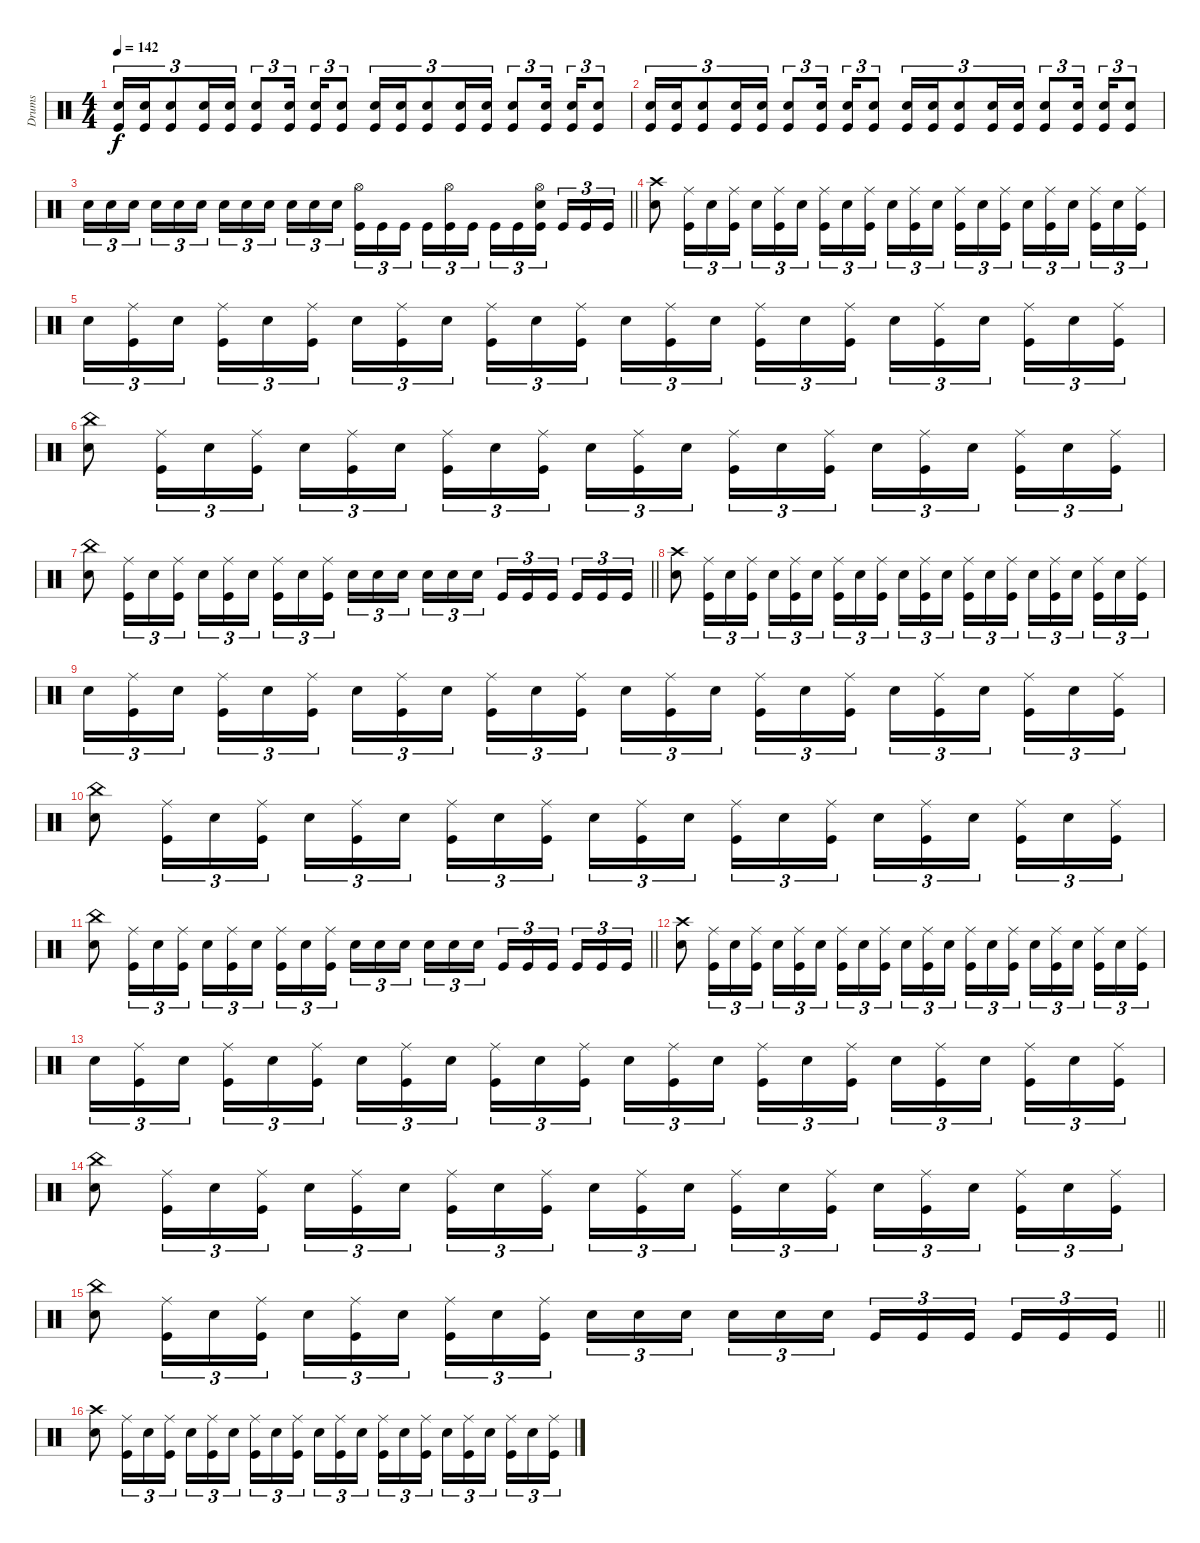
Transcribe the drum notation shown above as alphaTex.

\track ("Drums" "Drums") {instrument percussion}
\staff
\articulation defaults
\ts (4 4)
\tempo 142
\clef neutral
\ks c
("Electric Snare (hit)" "Kick (hit)").16{tu (3 2) dy f} ("Electric Snare (hit)" "Kick (hit)").16{tu (3 2)} ("Electric Snare (hit)" "Kick (hit)").8{tu (3 2)} ("Electric Snare (hit)" "Kick (hit)").16{tu (3 2)} ("Electric Snare (hit)" "Kick (hit)").16{tu (3 2)} ("Electric Snare (hit)" "Kick (hit)").8{tu (3 2)} ("Electric Snare (hit)" "Kick (hit)").16{tu (3 2) beam splitsecondary} ("Electric Snare (hit)" "Kick (hit)").16{tu (3 2)} ("Electric Snare (hit)" "Kick (hit)").8{tu (3 2)} ("Electric Snare (hit)" "Kick (hit)").16{tu (3 2)} ("Electric Snare (hit)" "Kick (hit)").16{tu (3 2)} ("Electric Snare (hit)" "Kick (hit)").8{tu (3 2)} ("Electric Snare (hit)" "Kick (hit)").16{tu (3 2)} ("Electric Snare (hit)" "Kick (hit)").16{tu (3 2)} ("Electric Snare (hit)" "Kick (hit)").8{tu (3 2)} ("Electric Snare (hit)" "Kick (hit)").16{tu (3 2) beam splitsecondary} ("Electric Snare (hit)" "Kick (hit)").16{tu (3 2)} ("Electric Snare (hit)" "Kick (hit)").8{tu (3 2)} |
("Electric Snare (hit)" "Kick (hit)").16{tu (3 2)} ("Electric Snare (hit)" "Kick (hit)").16{tu (3 2)} ("Electric Snare (hit)" "Kick (hit)").8{tu (3 2)} ("Electric Snare (hit)" "Kick (hit)").16{tu (3 2)} ("Electric Snare (hit)" "Kick (hit)").16{tu (3 2)} ("Electric Snare (hit)" "Kick (hit)").8{tu (3 2)} ("Electric Snare (hit)" "Kick (hit)").16{tu (3 2) beam splitsecondary} ("Electric Snare (hit)" "Kick (hit)").16{tu (3 2)} ("Electric Snare (hit)" "Kick (hit)").8{tu (3 2)} ("Electric Snare (hit)" "Kick (hit)").16{tu (3 2)} ("Electric Snare (hit)" "Kick (hit)").16{tu (3 2)} ("Electric Snare (hit)" "Kick (hit)").8{tu (3 2)} ("Electric Snare (hit)" "Kick (hit)").16{tu (3 2)} ("Electric Snare (hit)" "Kick (hit)").16{tu (3 2)} ("Electric Snare (hit)" "Kick (hit)").8{tu (3 2)} ("Electric Snare (hit)" "Kick (hit)").16{tu (3 2) beam splitsecondary} ("Electric Snare (hit)" "Kick (hit)").16{tu (3 2)} ("Electric Snare (hit)" "Kick (hit)").8{tu (3 2)} |
\barLineRight lightlight "Electric Snare (hit)".16{tu (3 2)} "Electric Snare (hit)".16{tu (3 2)} "Electric Snare (hit)".16{tu (3 2) beam splitsecondary} "Electric Snare (hit)".16{tu (3 2)} "Electric Snare (hit)".16{tu (3 2)} "Electric Snare (hit)".16{tu (3 2)} "Electric Snare (hit)".16{tu (3 2)} "Electric Snare (hit)".16{tu (3 2)} "Electric Snare (hit)".16{tu (3 2) beam splitsecondary} "Electric Snare (hit)".16{tu (3 2)} "Electric Snare (hit)".16{tu (3 2)} "Electric Snare (hit)".16{tu (3 2)}
("Hi-Hat (open)" "Kick (hit)").16{tu (3 2)} "Kick (hit)".16{tu (3 2)} "Kick (hit)".16{tu (3 2) beam splitsecondary} "Kick (hit)".16{tu (3 2)} ("Hi-Hat (open)" "Kick (hit)").16{tu (3 2)} "Kick (hit)".16{tu (3 2)} "Kick (hit)".16{tu (3 2)} "Kick (hit)".16{tu (3 2)} ("Hi-Hat (open)" "Electric Snare (hit)" "Kick (hit)").16{tu (3 2) beam splitsecondary} "Kick (hit)".16{tu (3 2)} "Kick (hit)".16{tu (3 2)} "Kick (hit)".16{tu (3 2)} |
("Crash high (hit)" "Electric Snare (hit)").8 ("Ride (middle)" "Kick (hit)").16{tu (3 2)} "Electric Snare (hit)".16{tu (3 2)} ("Ride (middle)" "Kick (hit)").16{tu (3 2)} "Electric Snare (hit)".16{tu (3 2)} ("Ride (middle)" "Kick (hit)").16{tu (3 2)} "Electric Snare (hit)".16{tu (3 2) beam splitsecondary} ("Ride (middle)" "Kick (hit)").16{tu (3 2)} "Electric Snare (hit)".16{tu (3 2)} ("Ride (middle)" "Kick (hit)").16{tu (3 2)} "Electric Snare (hit)".16{tu (3 2)} ("Ride (middle)" "Kick (hit)").16{tu (3 2)} "Electric Snare (hit)".16{tu (3 2) beam splitsecondary} ("Ride (middle)" "Kick (hit)").16{tu (3 2)} "Electric Snare (hit)".16{tu (3 2)} ("Ride (middle)" "Kick (hit)").16{tu (3 2)} "Electric Snare (hit)".16{tu (3 2)} ("Ride (middle)" "Kick (hit)").16{tu (3 2)} "Electric Snare (hit)".16{tu (3 2) beam splitsecondary} ("Ride (middle)" "Kick (hit)").16{tu (3 2)} "Electric Snare (hit)".16{tu (3 2)} ("Ride (middle)" "Kick (hit)").16{tu (3 2)} |
"Electric Snare (hit)".16{tu (3 2)} ("Ride (middle)" "Kick (hit)").16{tu (3 2)} "Electric Snare (hit)".16{tu (3 2) beam splitsecondary} ("Ride (middle)" "Kick (hit)").16{tu (3 2)} "Electric Snare (hit)".16{tu (3 2)} ("Ride (middle)" "Kick (hit)").16{tu (3 2)} "Electric Snare (hit)".16{tu (3 2)} ("Ride (middle)" "Kick (hit)").16{tu (3 2)} "Electric Snare (hit)".16{tu (3 2) beam splitsecondary} ("Ride (middle)" "Kick (hit)").16{tu (3 2)} "Electric Snare (hit)".16{tu (3 2)} ("Ride (middle)" "Kick (hit)").16{tu (3 2)} "Electric Snare (hit)".16{tu (3 2)} ("Ride (middle)" "Kick (hit)").16{tu (3 2)} "Electric Snare (hit)".16{tu (3 2) beam splitsecondary} ("Ride (middle)" "Kick (hit)").16{tu (3 2)} "Electric Snare (hit)".16{tu (3 2)} ("Ride (middle)" "Kick (hit)").16{tu (3 2)} "Electric Snare (hit)".16{tu (3 2)} ("Ride (middle)" "Kick (hit)").16{tu (3 2)} "Electric Snare (hit)".16{tu (3 2) beam splitsecondary} ("Ride (middle)" "Kick (hit)").16{tu (3 2)} "Electric Snare (hit)".16{tu (3 2)} ("Ride (middle)" "Kick (hit)").16{tu (3 2)} |
("China (hit)" "Electric Snare (hit)").8 ("Ride (middle)" "Kick (hit)").16{tu (3 2)} "Electric Snare (hit)".16{tu (3 2)} ("Ride (middle)" "Kick (hit)").16{tu (3 2)} "Electric Snare (hit)".16{tu (3 2)} ("Ride (middle)" "Kick (hit)").16{tu (3 2)} "Electric Snare (hit)".16{tu (3 2) beam splitsecondary} ("Ride (middle)" "Kick (hit)").16{tu (3 2)} "Electric Snare (hit)".16{tu (3 2)} ("Ride (middle)" "Kick (hit)").16{tu (3 2)} "Electric Snare (hit)".16{tu (3 2)} ("Ride (middle)" "Kick (hit)").16{tu (3 2)} "Electric Snare (hit)".16{tu (3 2) beam splitsecondary} ("Ride (middle)" "Kick (hit)").16{tu (3 2)} "Electric Snare (hit)".16{tu (3 2)} ("Ride (middle)" "Kick (hit)").16{tu (3 2)} "Electric Snare (hit)".16{tu (3 2)} ("Ride (middle)" "Kick (hit)").16{tu (3 2)} "Electric Snare (hit)".16{tu (3 2) beam splitsecondary} ("Ride (middle)" "Kick (hit)").16{tu (3 2)} "Electric Snare (hit)".16{tu (3 2)} ("Ride (middle)" "Kick (hit)").16{tu (3 2)} |
\barLineRight lightlight
("China (hit)" "Electric Snare (hit)").8 ("Ride (middle)" "Kick (hit)").16{tu (3 2)} "Electric Snare (hit)".16{tu (3 2)} ("Ride (middle)" "Kick (hit)").16{tu (3 2)} "Electric Snare (hit)".16{tu (3 2)} ("Ride (middle)" "Kick (hit)").16{tu (3 2)} "Electric Snare (hit)".16{tu (3 2) beam splitsecondary} ("Ride (middle)" "Kick (hit)").16{tu (3 2)} "Electric Snare (hit)".16{tu (3 2)} ("Ride (middle)" "Kick (hit)").16{tu (3 2)} "Electric Snare (hit)".16{tu (3 2)} "Electric Snare (hit)".16{tu (3 2)} "Electric Snare (hit)".16{tu (3 2) beam splitsecondary} "Electric Snare (hit)".16{tu (3 2)} "Electric Snare (hit)".16{tu (3 2)} "Electric Snare (hit)".16{tu (3 2)} "Kick (hit)".16{tu (3 2)} "Kick (hit)".16{tu (3 2)} "Kick (hit)".16{tu (3 2) beam splitsecondary} "Kick (hit)".16{tu (3 2)} "Kick (hit)".16{tu (3 2)} "Kick (hit)".16{tu (3 2)} |
("Crash high (hit)" "Electric Snare (hit)").8 ("Ride (middle)" "Kick (hit)").16{tu (3 2)} "Electric Snare (hit)".16{tu (3 2)} ("Ride (middle)" "Kick (hit)").16{tu (3 2)} "Electric Snare (hit)".16{tu (3 2)} ("Ride (middle)" "Kick (hit)").16{tu (3 2)} "Electric Snare (hit)".16{tu (3 2) beam splitsecondary} ("Ride (middle)" "Kick (hit)").16{tu (3 2)} "Electric Snare (hit)".16{tu (3 2)} ("Ride (middle)" "Kick (hit)").16{tu (3 2)} "Electric Snare (hit)".16{tu (3 2)} ("Ride (middle)" "Kick (hit)").16{tu (3 2)} "Electric Snare (hit)".16{tu (3 2) beam splitsecondary} ("Ride (middle)" "Kick (hit)").16{tu (3 2)} "Electric Snare (hit)".16{tu (3 2)} ("Ride (middle)" "Kick (hit)").16{tu (3 2)} "Electric Snare (hit)".16{tu (3 2)} ("Ride (middle)" "Kick (hit)").16{tu (3 2)} "Electric Snare (hit)".16{tu (3 2) beam splitsecondary} ("Ride (middle)" "Kick (hit)").16{tu (3 2)} "Electric Snare (hit)".16{tu (3 2)} ("Ride (middle)" "Kick (hit)").16{tu (3 2)} |
"Electric Snare (hit)".16{tu (3 2)} ("Ride (middle)" "Kick (hit)").16{tu (3 2)} "Electric Snare (hit)".16{tu (3 2) beam splitsecondary} ("Ride (middle)" "Kick (hit)").16{tu (3 2)} "Electric Snare (hit)".16{tu (3 2)} ("Ride (middle)" "Kick (hit)").16{tu (3 2)} "Electric Snare (hit)".16{tu (3 2)} ("Ride (middle)" "Kick (hit)").16{tu (3 2)} "Electric Snare (hit)".16{tu (3 2) beam splitsecondary} ("Ride (middle)" "Kick (hit)").16{tu (3 2)} "Electric Snare (hit)".16{tu (3 2)} ("Ride (middle)" "Kick (hit)").16{tu (3 2)} "Electric Snare (hit)".16{tu (3 2)} ("Ride (middle)" "Kick (hit)").16{tu (3 2)} "Electric Snare (hit)".16{tu (3 2) beam splitsecondary} ("Ride (middle)" "Kick (hit)").16{tu (3 2)} "Electric Snare (hit)".16{tu (3 2)} ("Ride (middle)" "Kick (hit)").16{tu (3 2)} "Electric Snare (hit)".16{tu (3 2)} ("Ride (middle)" "Kick (hit)").16{tu (3 2)} "Electric Snare (hit)".16{tu (3 2) beam splitsecondary} ("Ride (middle)" "Kick (hit)").16{tu (3 2)} "Electric Snare (hit)".16{tu (3 2)} ("Ride (middle)" "Kick (hit)").16{tu (3 2)} |
("China (hit)" "Electric Snare (hit)").8 ("Ride (middle)" "Kick (hit)").16{tu (3 2)} "Electric Snare (hit)".16{tu (3 2)} ("Ride (middle)" "Kick (hit)").16{tu (3 2)} "Electric Snare (hit)".16{tu (3 2)} ("Ride (middle)" "Kick (hit)").16{tu (3 2)} "Electric Snare (hit)".16{tu (3 2) beam splitsecondary} ("Ride (middle)" "Kick (hit)").16{tu (3 2)} "Electric Snare (hit)".16{tu (3 2)} ("Ride (middle)" "Kick (hit)").16{tu (3 2)} "Electric Snare (hit)".16{tu (3 2)} ("Ride (middle)" "Kick (hit)").16{tu (3 2)} "Electric Snare (hit)".16{tu (3 2) beam splitsecondary} ("Ride (middle)" "Kick (hit)").16{tu (3 2)} "Electric Snare (hit)".16{tu (3 2)} ("Ride (middle)" "Kick (hit)").16{tu (3 2)} "Electric Snare (hit)".16{tu (3 2)} ("Ride (middle)" "Kick (hit)").16{tu (3 2)} "Electric Snare (hit)".16{tu (3 2) beam splitsecondary} ("Ride (middle)" "Kick (hit)").16{tu (3 2)} "Electric Snare (hit)".16{tu (3 2)} ("Ride (middle)" "Kick (hit)").16{tu (3 2)} |
\barLineRight lightlight
("China (hit)" "Electric Snare (hit)").8 ("Ride (middle)" "Kick (hit)").16{tu (3 2)} "Electric Snare (hit)".16{tu (3 2)} ("Ride (middle)" "Kick (hit)").16{tu (3 2)} "Electric Snare (hit)".16{tu (3 2)} ("Ride (middle)" "Kick (hit)").16{tu (3 2)} "Electric Snare (hit)".16{tu (3 2) beam splitsecondary} ("Ride (middle)" "Kick (hit)").16{tu (3 2)} "Electric Snare (hit)".16{tu (3 2)} ("Ride (middle)" "Kick (hit)").16{tu (3 2)} "Electric Snare (hit)".16{tu (3 2)} "Electric Snare (hit)".16{tu (3 2)} "Electric Snare (hit)".16{tu (3 2) beam splitsecondary} "Electric Snare (hit)".16{tu (3 2)} "Electric Snare (hit)".16{tu (3 2)} "Electric Snare (hit)".16{tu (3 2)} "Kick (hit)".16{tu (3 2)} "Kick (hit)".16{tu (3 2)} "Kick (hit)".16{tu (3 2) beam splitsecondary} "Kick (hit)".16{tu (3 2)} "Kick (hit)".16{tu (3 2)} "Kick (hit)".16{tu (3 2)} |
("Crash high (hit)" "Electric Snare (hit)").8 ("Ride (middle)" "Kick (hit)").16{tu (3 2)} "Electric Snare (hit)".16{tu (3 2)} ("Ride (middle)" "Kick (hit)").16{tu (3 2)} "Electric Snare (hit)".16{tu (3 2)} ("Ride (middle)" "Kick (hit)").16{tu (3 2)} "Electric Snare (hit)".16{tu (3 2) beam splitsecondary} ("Ride (middle)" "Kick (hit)").16{tu (3 2)} "Electric Snare (hit)".16{tu (3 2)} ("Ride (middle)" "Kick (hit)").16{tu (3 2)} "Electric Snare (hit)".16{tu (3 2)} ("Ride (middle)" "Kick (hit)").16{tu (3 2)} "Electric Snare (hit)".16{tu (3 2) beam splitsecondary} ("Ride (middle)" "Kick (hit)").16{tu (3 2)} "Electric Snare (hit)".16{tu (3 2)} ("Ride (middle)" "Kick (hit)").16{tu (3 2)} "Electric Snare (hit)".16{tu (3 2)} ("Ride (middle)" "Kick (hit)").16{tu (3 2)} "Electric Snare (hit)".16{tu (3 2) beam splitsecondary} ("Ride (middle)" "Kick (hit)").16{tu (3 2)} "Electric Snare (hit)".16{tu (3 2)} ("Ride (middle)" "Kick (hit)").16{tu (3 2)} |
"Electric Snare (hit)".16{tu (3 2)} ("Ride (middle)" "Kick (hit)").16{tu (3 2)} "Electric Snare (hit)".16{tu (3 2) beam splitsecondary} ("Ride (middle)" "Kick (hit)").16{tu (3 2)} "Electric Snare (hit)".16{tu (3 2)} ("Ride (middle)" "Kick (hit)").16{tu (3 2)} "Electric Snare (hit)".16{tu (3 2)} ("Ride (middle)" "Kick (hit)").16{tu (3 2)} "Electric Snare (hit)".16{tu (3 2) beam splitsecondary} ("Ride (middle)" "Kick (hit)").16{tu (3 2)} "Electric Snare (hit)".16{tu (3 2)} ("Ride (middle)" "Kick (hit)").16{tu (3 2)} "Electric Snare (hit)".16{tu (3 2)} ("Ride (middle)" "Kick (hit)").16{tu (3 2)} "Electric Snare (hit)".16{tu (3 2) beam splitsecondary} ("Ride (middle)" "Kick (hit)").16{tu (3 2)} "Electric Snare (hit)".16{tu (3 2)} ("Ride (middle)" "Kick (hit)").16{tu (3 2)} "Electric Snare (hit)".16{tu (3 2)} ("Ride (middle)" "Kick (hit)").16{tu (3 2)} "Electric Snare (hit)".16{tu (3 2) beam splitsecondary} ("Ride (middle)" "Kick (hit)").16{tu (3 2)} "Electric Snare (hit)".16{tu (3 2)} ("Ride (middle)" "Kick (hit)").16{tu (3 2)} |
("China (hit)" "Electric Snare (hit)").8 ("Ride (middle)" "Kick (hit)").16{tu (3 2)} "Electric Snare (hit)".16{tu (3 2)} ("Ride (middle)" "Kick (hit)").16{tu (3 2)} "Electric Snare (hit)".16{tu (3 2)} ("Ride (middle)" "Kick (hit)").16{tu (3 2)} "Electric Snare (hit)".16{tu (3 2) beam splitsecondary} ("Ride (middle)" "Kick (hit)").16{tu (3 2)} "Electric Snare (hit)".16{tu (3 2)} ("Ride (middle)" "Kick (hit)").16{tu (3 2)} "Electric Snare (hit)".16{tu (3 2)} ("Ride (middle)" "Kick (hit)").16{tu (3 2)} "Electric Snare (hit)".16{tu (3 2) beam splitsecondary} ("Ride (middle)" "Kick (hit)").16{tu (3 2)} "Electric Snare (hit)".16{tu (3 2)} ("Ride (middle)" "Kick (hit)").16{tu (3 2)} "Electric Snare (hit)".16{tu (3 2)} ("Ride (middle)" "Kick (hit)").16{tu (3 2)} "Electric Snare (hit)".16{tu (3 2) beam splitsecondary} ("Ride (middle)" "Kick (hit)").16{tu (3 2)} "Electric Snare (hit)".16{tu (3 2)} ("Ride (middle)" "Kick (hit)").16{tu (3 2)} |
\barLineRight lightlight
("China (hit)" "Electric Snare (hit)").8 ("Ride (middle)" "Kick (hit)").16{tu (3 2)} "Electric Snare (hit)".16{tu (3 2)} ("Ride (middle)" "Kick (hit)").16{tu (3 2)} "Electric Snare (hit)".16{tu (3 2)} ("Ride (middle)" "Kick (hit)").16{tu (3 2)} "Electric Snare (hit)".16{tu (3 2) beam splitsecondary} ("Ride (middle)" "Kick (hit)").16{tu (3 2)} "Electric Snare (hit)".16{tu (3 2)} ("Ride (middle)" "Kick (hit)").16{tu (3 2)} "Electric Snare (hit)".16{tu (3 2)} "Electric Snare (hit)".16{tu (3 2)} "Electric Snare (hit)".16{tu (3 2) beam splitsecondary} "Electric Snare (hit)".16{tu (3 2)} "Electric Snare (hit)".16{tu (3 2)} "Electric Snare (hit)".16{tu (3 2)} "Kick (hit)".16{tu (3 2)} "Kick (hit)".16{tu (3 2)} "Kick (hit)".16{tu (3 2) beam splitsecondary} "Kick (hit)".16{tu (3 2)} "Kick (hit)".16{tu (3 2)} "Kick (hit)".16{tu (3 2)} |
("Crash high (hit)" "Electric Snare (hit)").8 ("Ride (middle)" "Kick (hit)").16{tu (3 2)} "Electric Snare (hit)".16{tu (3 2)} ("Ride (middle)" "Kick (hit)").16{tu (3 2)} "Electric Snare (hit)".16{tu (3 2)} ("Ride (middle)" "Kick (hit)").16{tu (3 2)} "Electric Snare (hit)".16{tu (3 2) beam splitsecondary} ("Ride (middle)" "Kick (hit)").16{tu (3 2)} "Electric Snare (hit)".16{tu (3 2)} ("Ride (middle)" "Kick (hit)").16{tu (3 2)} "Electric Snare (hit)".16{tu (3 2)} ("Ride (middle)" "Kick (hit)").16{tu (3 2)} "Electric Snare (hit)".16{tu (3 2) beam splitsecondary} ("Ride (middle)" "Kick (hit)").16{tu (3 2)} "Electric Snare (hit)".16{tu (3 2)} ("Ride (middle)" "Kick (hit)").16{tu (3 2)} "Electric Snare (hit)".16{tu (3 2)} ("Ride (middle)" "Kick (hit)").16{tu (3 2)} "Electric Snare (hit)".16{tu (3 2) beam splitsecondary} ("Ride (middle)" "Kick (hit)").16{tu (3 2)} "Electric Snare (hit)".16{tu (3 2)} ("Ride (middle)" "Kick (hit)").16{tu (3 2)}
